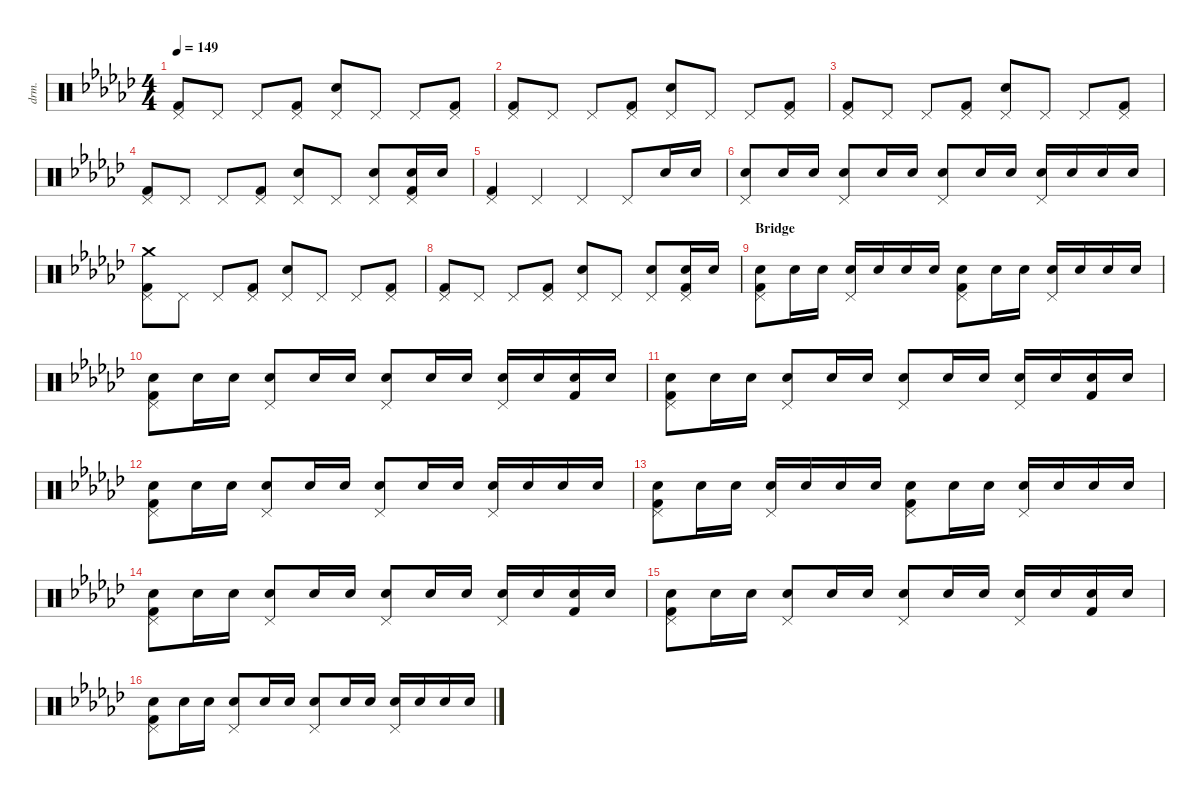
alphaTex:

\defaultSystemsLayout 4
\hideDynamics
\bracketExtendMode nobrackets
\otherSystemsTrackNameOrientation horizontal
\track ("Drums" "drm.") {defaultSystemsLayout 4 instrument percussion}
\staff {score}
\articulation defaults
\ts (4 4)
\tempo 149
\clef neutral
\ks gb
("Pedal Hi-Hat (hit)"{acc forcenatural} "Kick (hit) 2"{acc forcenatural}).8{dy f beam Up} "Pedal Hi-Hat (hit)"{acc forcenatural}.8{dy mp beam Up} "Pedal Hi-Hat (hit)"{acc forcenatural}.8{dy f beam Up} ("Pedal Hi-Hat (hit)"{acc forcenatural} "Kick (hit) 2"{acc forcenatural}).8{dy mp beam Up} ("Pedal Hi-Hat (hit)"{acc forcenatural} "Snare (hit) 2"{acc forcenatural}).8{dy f beam Up} "Pedal Hi-Hat (hit)"{acc forcenatural}.8{dy mp beam Up} "Pedal Hi-Hat (hit)"{acc forcenatural}.8{dy f beam Up} ("Pedal Hi-Hat (hit)"{acc forcenatural} "Kick (hit) 2"{acc forcenatural}).8{dy mp beam Up} |
("Pedal Hi-Hat (hit)"{acc forcenatural} "Kick (hit) 2"{acc forcenatural}).8{dy f beam Up} "Pedal Hi-Hat (hit)"{acc forcenatural}.8{dy mp beam Up} "Pedal Hi-Hat (hit)"{acc forcenatural}.8{dy f beam Up} ("Pedal Hi-Hat (hit)"{acc forcenatural} "Kick (hit) 2"{acc forcenatural}).8{dy mp beam Up} ("Pedal Hi-Hat (hit)"{acc forcenatural} "Snare (hit) 2"{acc forcenatural}).8{dy f beam Up} "Pedal Hi-Hat (hit)"{acc forcenatural}.8{dy mp beam Up} "Pedal Hi-Hat (hit)"{acc forcenatural}.8{dy f beam Up} ("Pedal Hi-Hat (hit)"{acc forcenatural} "Kick (hit) 2"{acc forcenatural}).8{dy mp beam Up} |
("Pedal Hi-Hat (hit)"{acc forcenatural} "Kick (hit) 2"{acc forcenatural}).8{dy f beam Up} "Pedal Hi-Hat (hit)"{acc forcenatural}.8{dy mp beam Up} "Pedal Hi-Hat (hit)"{acc forcenatural}.8{dy f beam Up} ("Pedal Hi-Hat (hit)"{acc forcenatural} "Kick (hit) 2"{acc forcenatural}).8{dy mp beam Up} ("Pedal Hi-Hat (hit)"{acc forcenatural} "Snare (hit) 2"{acc forcenatural}).8{dy f beam Up} "Pedal Hi-Hat (hit)"{acc forcenatural}.8{dy mp beam Up} "Pedal Hi-Hat (hit)"{acc forcenatural}.8{dy f beam Up} ("Pedal Hi-Hat (hit)"{acc forcenatural} "Kick (hit) 2"{acc forcenatural}).8{dy mp beam Up} |
("Pedal Hi-Hat (hit)"{acc forcenatural} "Kick (hit) 2"{acc forcenatural}).8{dy f beam Up} "Pedal Hi-Hat (hit)"{acc forcenatural}.8{dy mp beam Up} "Pedal Hi-Hat (hit)"{acc forcenatural}.8{dy f beam Up} ("Pedal Hi-Hat (hit)"{acc forcenatural} "Kick (hit) 2"{acc forcenatural}).8{dy mp beam Up} ("Pedal Hi-Hat (hit)"{acc forcenatural} "Snare (hit) 2"{acc forcenatural}).8{dy f beam Up} "Pedal Hi-Hat (hit)"{acc forcenatural}.8{dy mp beam Up} ("Pedal Hi-Hat (hit)"{acc forcenatural} "Snare (hit) 2"{acc forcenatural}).8{dy f beam Up} ("Pedal Hi-Hat (hit)"{acc forcenatural} "Snare (hit) 2"{acc forcenatural} "Kick (hit) 2"{acc forcenatural}).16{dy mp beam Up} "Snare (hit) 2"{acc forcenatural}.16{dy f beam Up} |
("Pedal Hi-Hat (hit)"{acc forcenatural} "Kick (hit) 2"{acc forcenatural}).4{beam Up} "Pedal Hi-Hat (hit)"{acc forcenatural}.4{beam Up} "Pedal Hi-Hat (hit)"{acc forcenatural}.4{beam Up} "Pedal Hi-Hat (hit)"{acc forcenatural}.8{beam Up} "Snare (hit) 2"{acc forcenatural}.16{dy mf beam Up} "Snare (hit) 2"{acc forcenatural}.16{beam Up} |
("Pedal Hi-Hat (hit)"{acc forcenatural} "Snare (hit) 2"{acc forcenatural}).8{dy f beam Up} "Snare (hit) 2"{acc forcenatural}.16{dy mf beam Up} "Snare (hit) 2"{acc forcenatural}.16{beam Up} ("Pedal Hi-Hat (hit)"{acc forcenatural} "Snare (hit) 2"{acc forcenatural}).8{dy f beam Up} "Snare (hit) 2"{acc forcenatural}.16{dy mf beam Up} "Snare (hit) 2"{acc forcenatural}.16{beam Up} ("Pedal Hi-Hat (hit)"{acc forcenatural} "Snare (hit) 2"{acc forcenatural}).8{dy f beam Up} "Snare (hit) 2"{acc forcenatural}.16{dy mf beam Up} "Snare (hit) 2"{acc forcenatural}.16{beam Up} ("Pedal Hi-Hat (hit)"{acc forcenatural} "Snare (hit) 2"{acc forcenatural}).16{dy f beam Up} "Snare (hit) 2"{acc forcenatural}.16{dy mf beam Up} "Snare (hit) 2"{acc forcenatural}.16{beam Up} "Snare (hit) 2"{acc forcenatural}.16{beam Up} |
("Pedal Hi-Hat (hit)"{acc forcenatural} "Kick (hit) 2"{acc forcenatural} "Crash medium (hit)"{acc forcenatural}).8{dy f beam Down} "Pedal Hi-Hat (hit)"{acc forcenatural}.8{dy mp beam Down} "Pedal Hi-Hat (hit)"{acc forcenatural}.8{dy f beam Up} ("Pedal Hi-Hat (hit)"{acc forcenatural} "Kick (hit) 2"{acc forcenatural}).8{dy mp beam Up} ("Pedal Hi-Hat (hit)"{acc forcenatural} "Snare (hit) 2"{acc forcenatural}).8{dy f beam Up} "Pedal Hi-Hat (hit)"{acc forcenatural}.8{dy mp beam Up} "Pedal Hi-Hat (hit)"{acc forcenatural}.8{dy f beam Up} ("Pedal Hi-Hat (hit)"{acc forcenatural} "Kick (hit) 2"{acc forcenatural}).8{dy mp beam Up} |
("Pedal Hi-Hat (hit)"{acc forcenatural} "Kick (hit) 2"{acc forcenatural}).8{dy f beam Up} "Pedal Hi-Hat (hit)"{acc forcenatural}.8{dy mp beam Up} "Pedal Hi-Hat (hit)"{acc forcenatural}.8{dy f beam Up} ("Pedal Hi-Hat (hit)"{acc forcenatural} "Kick (hit) 2"{acc forcenatural}).8{dy mp beam Up} ("Pedal Hi-Hat (hit)"{acc forcenatural} "Snare (hit) 2"{acc forcenatural}).8{dy f beam Up} "Pedal Hi-Hat (hit)"{acc forcenatural}.8{dy mp beam Up} ("Pedal Hi-Hat (hit)"{acc forcenatural} "Snare (hit) 2"{acc forcenatural}).8{dy f beam Up} ("Pedal Hi-Hat (hit)"{acc forcenatural} "Snare (hit) 2"{acc forcenatural} "Kick (hit) 2"{acc forcenatural}).16{dy mp beam Up} "Snare (hit) 2"{acc forcenatural}.16{dy f beam Up} |
\section ("" "Bridge")
("Pedal Hi-Hat (hit)"{acc forcenatural} "Kick (hit) 2"{acc forcenatural} "Snare (hit) 2"{acc forcenatural}).8{beam Down} "Snare (hit) 2"{acc forcenatural}.16{dy mf beam Down} "Snare (hit) 2"{acc forcenatural}.16{beam Down} ("Pedal Hi-Hat (hit)"{acc forcenatural} "Snare (hit) 2"{acc forcenatural}).16{dy f beam Up} "Snare (hit) 2"{acc forcenatural}.16{dy mf beam Up} "Snare (hit) 2"{acc forcenatural}.16{beam Up} "Snare (hit) 2"{acc forcenatural}.16{beam Up} ("Pedal Hi-Hat (hit)"{acc forcenatural} "Kick (hit) 2"{acc forcenatural} "Snare (hit) 2"{acc forcenatural}).8{dy f beam Down} "Snare (hit) 2"{acc forcenatural}.16{dy mf beam Down} "Snare (hit) 2"{acc forcenatural}.16{beam Down} ("Pedal Hi-Hat (hit)"{acc forcenatural} "Snare (hit) 2"{acc forcenatural}).16{dy f beam Up} "Snare (hit) 2"{acc forcenatural}.16{dy mf beam Up} "Snare (hit) 2"{acc forcenatural}.16{beam Up} "Snare (hit) 2"{acc forcenatural}.16{beam Up} |
("Pedal Hi-Hat (hit)"{acc forcenatural} "Kick (hit) 2"{acc forcenatural} "Snare (hit) 2"{acc forcenatural}).8{dy f beam Down} "Snare (hit) 2"{acc forcenatural}.16{dy mf beam Down} "Snare (hit) 2"{acc forcenatural}.16{beam Down} ("Pedal Hi-Hat (hit)"{acc forcenatural} "Snare (hit) 2"{acc forcenatural}).8{dy f beam Up} "Snare (hit) 2"{acc forcenatural}.16{dy mf beam Up} "Snare (hit) 2"{acc forcenatural}.16{beam Up} ("Pedal Hi-Hat (hit)"{acc forcenatural} "Snare (hit) 2"{acc forcenatural}).8{dy f beam Up} "Snare (hit) 2"{acc forcenatural}.16{dy mf beam Up} "Snare (hit) 2"{acc forcenatural}.16{beam Up} ("Pedal Hi-Hat (hit)"{acc forcenatural} "Snare (hit) 2"{acc forcenatural}).16{dy f beam Up} "Snare (hit) 2"{acc forcenatural}.16{dy mf beam Up} ("Kick (hit) 2"{acc forcenatural} "Snare (hit) 2"{acc forcenatural}).16{dy f beam Up} "Snare (hit) 2"{acc forcenatural}.16{dy mf beam Up} |
("Pedal Hi-Hat (hit)"{acc forcenatural} "Kick (hit) 2"{acc forcenatural} "Snare (hit) 2"{acc forcenatural}).8{dy f beam Down} "Snare (hit) 2"{acc forcenatural}.16{dy mf beam Down} "Snare (hit) 2"{acc forcenatural}.16{beam Down} ("Pedal Hi-Hat (hit)"{acc forcenatural} "Snare (hit) 2"{acc forcenatural}).8{dy f beam Up} "Snare (hit) 2"{acc forcenatural}.16{dy mf beam Up} "Snare (hit) 2"{acc forcenatural}.16{beam Up} ("Pedal Hi-Hat (hit)"{acc forcenatural} "Snare (hit) 2"{acc forcenatural}).8{dy f beam Up} "Snare (hit) 2"{acc forcenatural}.16{dy mf beam Up} "Snare (hit) 2"{acc forcenatural}.16{beam Up} ("Pedal Hi-Hat (hit)"{acc forcenatural} "Snare (hit) 2"{acc forcenatural}).16{dy f beam Up} "Snare (hit) 2"{acc forcenatural}.16{dy mf beam Up} ("Kick (hit) 2"{acc forcenatural} "Snare (hit) 2"{acc forcenatural}).16{dy f beam Up} "Snare (hit) 2"{acc forcenatural}.16{dy mf beam Up} |
("Pedal Hi-Hat (hit)"{acc forcenatural} "Kick (hit) 2"{acc forcenatural} "Snare (hit) 2"{acc forcenatural}).8{dy f beam Down} "Snare (hit) 2"{acc forcenatural}.16{dy mf beam Down} "Snare (hit) 2"{acc forcenatural}.16{beam Down} ("Pedal Hi-Hat (hit)"{acc forcenatural} "Snare (hit) 2"{acc forcenatural}).8{dy f beam Up} "Snare (hit) 2"{acc forcenatural}.16{dy mf beam Up} "Snare (hit) 2"{acc forcenatural}.16{beam Up} ("Pedal Hi-Hat (hit)"{acc forcenatural} "Snare (hit) 2"{acc forcenatural}).8{dy f beam Up} "Snare (hit) 2"{acc forcenatural}.16{dy mf beam Up} "Snare (hit) 2"{acc forcenatural}.16{beam Up} ("Pedal Hi-Hat (hit)"{acc forcenatural} "Snare (hit) 2"{acc forcenatural}).16{dy f beam Up} "Snare (hit) 2"{acc forcenatural}.16{dy mf beam Up} "Snare (hit) 2"{acc forcenatural}.16{beam Up} "Snare (hit) 2"{acc forcenatural}.16{beam Up} |
("Pedal Hi-Hat (hit)"{acc forcenatural} "Kick (hit) 2"{acc forcenatural} "Snare (hit) 2"{acc forcenatural}).8{dy f beam Down} "Snare (hit) 2"{acc forcenatural}.16{dy mf beam Down} "Snare (hit) 2"{acc forcenatural}.16{beam Down} ("Pedal Hi-Hat (hit)"{acc forcenatural} "Snare (hit) 2"{acc forcenatural}).16{dy f beam Up} "Snare (hit) 2"{acc forcenatural}.16{dy mf beam Up} "Snare (hit) 2"{acc forcenatural}.16{beam Up} "Snare (hit) 2"{acc forcenatural}.16{beam Up} ("Pedal Hi-Hat (hit)"{acc forcenatural} "Kick (hit) 2"{acc forcenatural} "Snare (hit) 2"{acc forcenatural}).8{dy f beam Down} "Snare (hit) 2"{acc forcenatural}.16{dy mf beam Down} "Snare (hit) 2"{acc forcenatural}.16{beam Down} ("Pedal Hi-Hat (hit)"{acc forcenatural} "Snare (hit) 2"{acc forcenatural}).16{dy f beam Up} "Snare (hit) 2"{acc forcenatural}.16{dy mf beam Up} "Snare (hit) 2"{acc forcenatural}.16{beam Up} "Snare (hit) 2"{acc forcenatural}.16{beam Up} |
("Pedal Hi-Hat (hit)"{acc forcenatural} "Kick (hit) 2"{acc forcenatural} "Snare (hit) 2"{acc forcenatural}).8{dy f beam Down} "Snare (hit) 2"{acc forcenatural}.16{dy mf beam Down} "Snare (hit) 2"{acc forcenatural}.16{beam Down} ("Pedal Hi-Hat (hit)"{acc forcenatural} "Snare (hit) 2"{acc forcenatural}).8{dy f beam Up} "Snare (hit) 2"{acc forcenatural}.16{dy mf beam Up} "Snare (hit) 2"{acc forcenatural}.16{beam Up} ("Pedal Hi-Hat (hit)"{acc forcenatural} "Snare (hit) 2"{acc forcenatural}).8{dy f beam Up} "Snare (hit) 2"{acc forcenatural}.16{dy mf beam Up} "Snare (hit) 2"{acc forcenatural}.16{beam Up} ("Pedal Hi-Hat (hit)"{acc forcenatural} "Snare (hit) 2"{acc forcenatural}).16{dy f beam Up} "Snare (hit) 2"{acc forcenatural}.16{dy mf beam Up} ("Kick (hit) 2"{acc forcenatural} "Snare (hit) 2"{acc forcenatural}).16{dy f beam Up} "Snare (hit) 2"{acc forcenatural}.16{dy mf beam Up} |
("Pedal Hi-Hat (hit)"{acc forcenatural} "Kick (hit) 2"{acc forcenatural} "Snare (hit) 2"{acc forcenatural}).8{dy f beam Down} "Snare (hit) 2"{acc forcenatural}.16{dy mf beam Down} "Snare (hit) 2"{acc forcenatural}.16{beam Down} ("Pedal Hi-Hat (hit)"{acc forcenatural} "Snare (hit) 2"{acc forcenatural}).8{dy f beam Up} "Snare (hit) 2"{acc forcenatural}.16{dy mf beam Up} "Snare (hit) 2"{acc forcenatural}.16{beam Up} ("Pedal Hi-Hat (hit)"{acc forcenatural} "Snare (hit) 2"{acc forcenatural}).8{dy f beam Up} "Snare (hit) 2"{acc forcenatural}.16{dy mf beam Up} "Snare (hit) 2"{acc forcenatural}.16{beam Up} ("Pedal Hi-Hat (hit)"{acc forcenatural} "Snare (hit) 2"{acc forcenatural}).16{dy f beam Up} "Snare (hit) 2"{acc forcenatural}.16{dy mf beam Up} ("Kick (hit) 2"{acc forcenatural} "Snare (hit) 2"{acc forcenatural}).16{dy f beam Up} "Snare (hit) 2"{acc forcenatural}.16{dy mf beam Up} |
("Pedal Hi-Hat (hit)"{acc forcenatural} "Kick (hit) 2"{acc forcenatural} "Snare (hit) 2"{acc forcenatural}).8{dy f beam Down} "Snare (hit) 2"{acc forcenatural}.16{dy mf beam Down} "Snare (hit) 2"{acc forcenatural}.16{beam Down} ("Pedal Hi-Hat (hit)"{acc forcenatural} "Snare (hit) 2"{acc forcenatural}).8{dy f beam Up} "Snare (hit) 2"{acc forcenatural}.16{dy mf beam Up} "Snare (hit) 2"{acc forcenatural}.16{beam Up} ("Pedal Hi-Hat (hit)"{acc forcenatural} "Snare (hit) 2"{acc forcenatural}).8{dy f beam Up} "Snare (hit) 2"{acc forcenatural}.16{dy mf beam Up} "Snare (hit) 2"{acc forcenatural}.16{beam Up} ("Pedal Hi-Hat (hit)"{acc forcenatural} "Snare (hit) 2"{acc forcenatural}).16{dy f beam Up} "Snare (hit) 2"{acc forcenatural}.16{dy mf beam Up} "Snare (hit) 2"{acc forcenatural}.16{beam Up} "Snare (hit) 2"{acc forcenatural}.16{beam Up}
